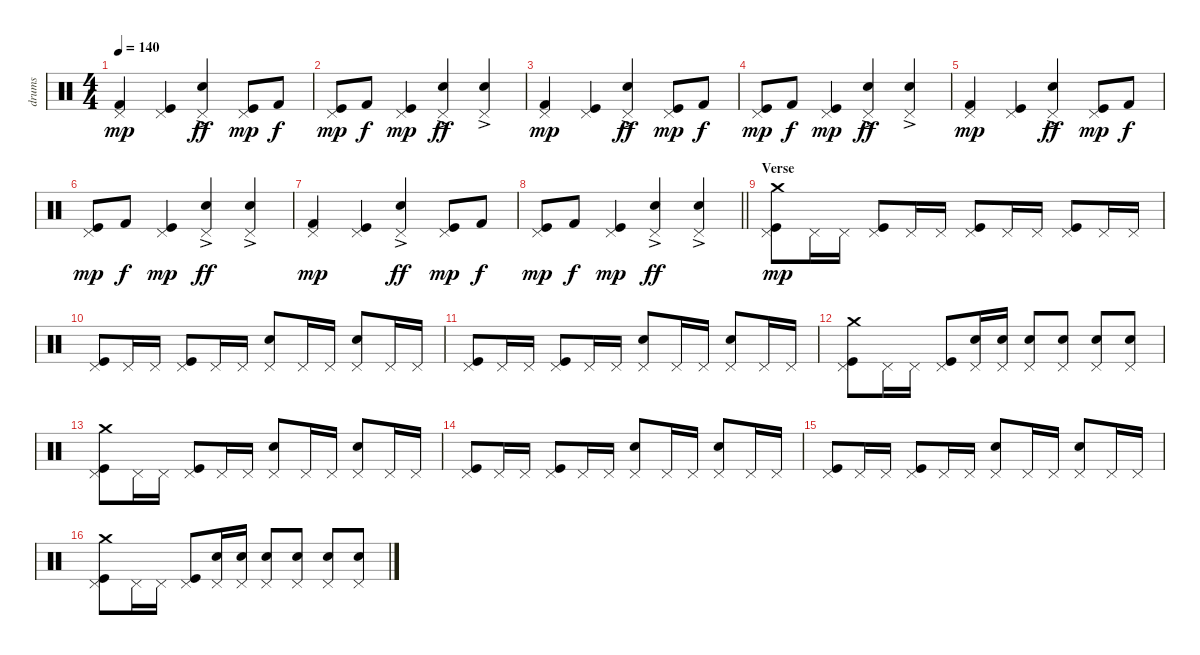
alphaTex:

\track ("drums" "drums") {instrument percussion}
\staff {score}
\articulation defaults
\ts (4 4)
\tempo 140
\clef neutral
\ks c
("Pedal Hi-Hat (hit)" "Kick (hit) 2").4{dy mp} ("Pedal Hi-Hat (hit)" "Kick (hit)").4 ("Pedal Hi-Hat (hit)" "Snare (hit) 2"{ac}).4{dy ff} ("Pedal Hi-Hat (hit)" "Kick (hit)").8{dy mp} "Kick (hit) 2".8{dy f} |
("Pedal Hi-Hat (hit)" "Kick (hit)").8{dy mp} "Kick (hit) 2".8{dy f} ("Pedal Hi-Hat (hit)" "Kick (hit)").4{dy mp} ("Pedal Hi-Hat (hit)" "Snare (hit) 2"{ac}).4{dy ff} ("Pedal Hi-Hat (hit)" "Snare (hit) 2"{ac}).4 |
("Pedal Hi-Hat (hit)" "Kick (hit) 2").4{dy mp} ("Pedal Hi-Hat (hit)" "Kick (hit)").4 ("Pedal Hi-Hat (hit)" "Snare (hit) 2"{ac}).4{dy ff} ("Pedal Hi-Hat (hit)" "Kick (hit)").8{dy mp} "Kick (hit) 2".8{dy f} |
("Pedal Hi-Hat (hit)" "Kick (hit)").8{dy mp} "Kick (hit) 2".8{dy f} ("Pedal Hi-Hat (hit)" "Kick (hit)").4{dy mp} ("Pedal Hi-Hat (hit)" "Snare (hit) 2"{ac}).4{dy ff} ("Pedal Hi-Hat (hit)" "Snare (hit) 2"{ac}).4 |
("Pedal Hi-Hat (hit)" "Kick (hit) 2").4{dy mp} ("Pedal Hi-Hat (hit)" "Kick (hit)").4 ("Pedal Hi-Hat (hit)" "Snare (hit) 2"{ac}).4{dy ff} ("Pedal Hi-Hat (hit)" "Kick (hit)").8{dy mp} "Kick (hit) 2".8{dy f} |
("Pedal Hi-Hat (hit)" "Kick (hit)").8{dy mp} "Kick (hit) 2".8{dy f} ("Pedal Hi-Hat (hit)" "Kick (hit)").4{dy mp} ("Pedal Hi-Hat (hit)" "Snare (hit) 2"{ac}).4{dy ff} ("Pedal Hi-Hat (hit)" "Snare (hit) 2"{ac}).4 |
("Pedal Hi-Hat (hit)" "Kick (hit) 2").4{dy mp} ("Pedal Hi-Hat (hit)" "Kick (hit)").4 ("Pedal Hi-Hat (hit)" "Snare (hit) 2"{ac}).4{dy ff} ("Pedal Hi-Hat (hit)" "Kick (hit)").8{dy mp} "Kick (hit) 2".8{dy f} |
\barLineRight lightlight
("Pedal Hi-Hat (hit)" "Kick (hit)").8{dy mp} "Kick (hit) 2".8{dy f} ("Pedal Hi-Hat (hit)" "Kick (hit)").4{dy mp} ("Pedal Hi-Hat (hit)" "Snare (hit) 2"{ac}).4{dy ff} ("Pedal Hi-Hat (hit)" "Snare (hit) 2"{ac}).4 |
\section ("" "Verse")
("Crash medium (hit)" "Pedal Hi-Hat (hit)" "Kick (hit)").8{dy mp} "Pedal Hi-Hat (hit)".16 "Pedal Hi-Hat (hit)".16 ("Pedal Hi-Hat (hit)" "Kick (hit)").8 "Pedal Hi-Hat (hit)".16 "Pedal Hi-Hat (hit)".16 ("Pedal Hi-Hat (hit)" "Kick (hit)").8 "Pedal Hi-Hat (hit)".16 "Pedal Hi-Hat (hit)".16 ("Pedal Hi-Hat (hit)" "Kick (hit)").8 "Pedal Hi-Hat (hit)".16 "Pedal Hi-Hat (hit)".16 |
("Pedal Hi-Hat (hit)" "Kick (hit)").8 "Pedal Hi-Hat (hit)".16 "Pedal Hi-Hat (hit)".16 ("Pedal Hi-Hat (hit)" "Kick (hit)").8 "Pedal Hi-Hat (hit)".16 "Pedal Hi-Hat (hit)".16 ("Pedal Hi-Hat (hit)" "Snare (hit) 2").8 "Pedal Hi-Hat (hit)".16 "Pedal Hi-Hat (hit)".16 ("Pedal Hi-Hat (hit)" "Snare (hit) 2").8 "Pedal Hi-Hat (hit)".16 "Pedal Hi-Hat (hit)".16 |
("Pedal Hi-Hat (hit)" "Kick (hit)").8 "Pedal Hi-Hat (hit)".16 "Pedal Hi-Hat (hit)".16 ("Pedal Hi-Hat (hit)" "Kick (hit)").8 "Pedal Hi-Hat (hit)".16 "Pedal Hi-Hat (hit)".16 ("Pedal Hi-Hat (hit)" "Snare (hit) 2").8 "Pedal Hi-Hat (hit)".16 "Pedal Hi-Hat (hit)".16 ("Pedal Hi-Hat (hit)" "Snare (hit) 2").8 "Pedal Hi-Hat (hit)".16 "Pedal Hi-Hat (hit)".16 |
("Crash medium (hit)" "Pedal Hi-Hat (hit)" "Kick (hit)").8 "Pedal Hi-Hat (hit)".16 "Pedal Hi-Hat (hit)".16 ("Pedal Hi-Hat (hit)" "Kick (hit)").8 ("Pedal Hi-Hat (hit)" "Snare (hit) 2").16 ("Pedal Hi-Hat (hit)" "Snare (hit) 2").16 ("Pedal Hi-Hat (hit)" "Snare (hit) 2").8 ("Pedal Hi-Hat (hit)" "Snare (hit) 2").8 ("Pedal Hi-Hat (hit)" "Snare (hit) 2").8 ("Pedal Hi-Hat (hit)" "Snare (hit) 2").8 |
("Crash medium (hit)" "Pedal Hi-Hat (hit)" "Kick (hit)").8 "Pedal Hi-Hat (hit)".16 "Pedal Hi-Hat (hit)".16 ("Pedal Hi-Hat (hit)" "Kick (hit)").8 "Pedal Hi-Hat (hit)".16 "Pedal Hi-Hat (hit)".16 ("Pedal Hi-Hat (hit)" "Snare (hit) 2").8 "Pedal Hi-Hat (hit)".16 "Pedal Hi-Hat (hit)".16 ("Pedal Hi-Hat (hit)" "Snare (hit) 2").8 "Pedal Hi-Hat (hit)".16 "Pedal Hi-Hat (hit)".16 |
("Pedal Hi-Hat (hit)" "Kick (hit)").8 "Pedal Hi-Hat (hit)".16 "Pedal Hi-Hat (hit)".16 ("Pedal Hi-Hat (hit)" "Kick (hit)").8 "Pedal Hi-Hat (hit)".16 "Pedal Hi-Hat (hit)".16 ("Pedal Hi-Hat (hit)" "Snare (hit) 2").8 "Pedal Hi-Hat (hit)".16 "Pedal Hi-Hat (hit)".16 ("Pedal Hi-Hat (hit)" "Snare (hit) 2").8 "Pedal Hi-Hat (hit)".16 "Pedal Hi-Hat (hit)".16 |
("Pedal Hi-Hat (hit)" "Kick (hit)").8 "Pedal Hi-Hat (hit)".16 "Pedal Hi-Hat (hit)".16 ("Pedal Hi-Hat (hit)" "Kick (hit)").8 "Pedal Hi-Hat (hit)".16 "Pedal Hi-Hat (hit)".16 ("Pedal Hi-Hat (hit)" "Snare (hit) 2").8 "Pedal Hi-Hat (hit)".16 "Pedal Hi-Hat (hit)".16 ("Pedal Hi-Hat (hit)" "Snare (hit) 2").8 "Pedal Hi-Hat (hit)".16 "Pedal Hi-Hat (hit)".16 |
("Crash medium (hit)" "Pedal Hi-Hat (hit)" "Kick (hit)").8 "Pedal Hi-Hat (hit)".16 "Pedal Hi-Hat (hit)".16 ("Pedal Hi-Hat (hit)" "Kick (hit)").8 ("Pedal Hi-Hat (hit)" "Snare (hit) 2").16 ("Pedal Hi-Hat (hit)" "Snare (hit) 2").16 ("Pedal Hi-Hat (hit)" "Snare (hit) 2").8 ("Pedal Hi-Hat (hit)" "Snare (hit) 2").8 ("Pedal Hi-Hat (hit)" "Snare (hit) 2").8 ("Pedal Hi-Hat (hit)" "Snare (hit) 2").8
